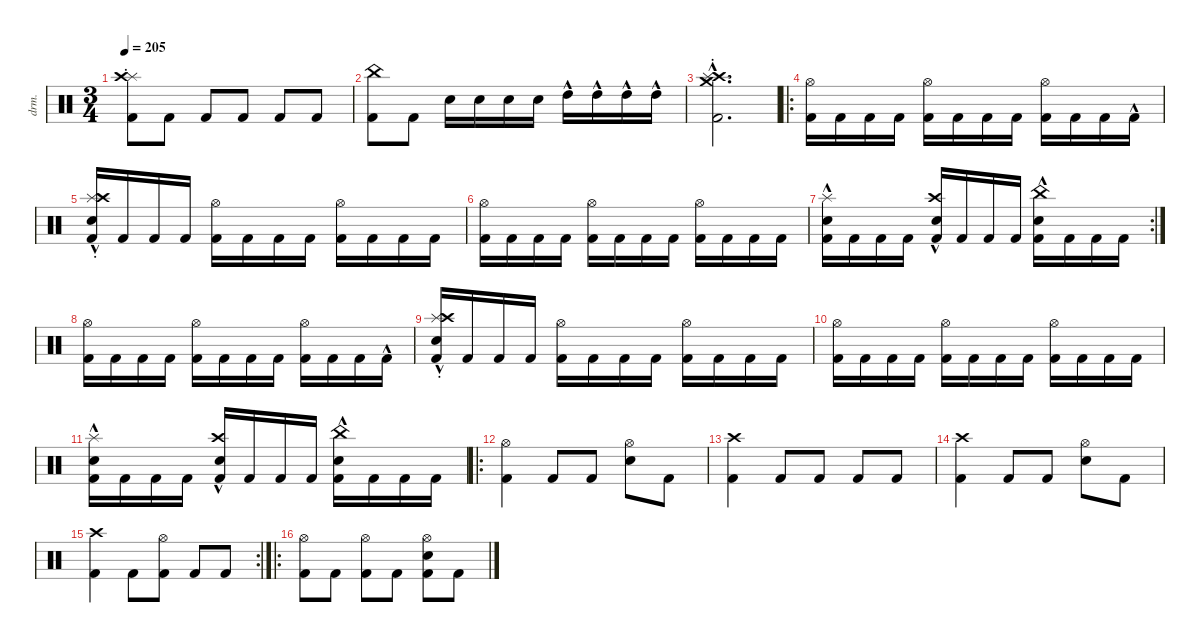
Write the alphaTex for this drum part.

\defaultSystemsLayout 4
\hideDynamics
\bracketExtendMode nobrackets
\otherSystemsTrackNameOrientation horizontal
\track ("Drumkit" "drm.") {instrument percussion}
\staff {score}
\articulation defaults
\ts (3 4)
\tempo 205
\clef neutral
\ks c
("Kick (hit) 2" "Splash (choke)" "Crash high (hit)").8{dy mf} "Kick (hit) 2".8 "Kick (hit) 2".8 "Kick (hit) 2".8 "Kick (hit) 2".8 "Kick (hit) 2".8 |
("China (choke)" "Kick (hit) 2").8 "Kick (hit) 2".8 "Snare (hit) 2".16 "Snare (hit) 2".16 "Snare (hit) 2".16 "Snare (hit) 2".16 "High Tom (hit)"{hac}.16 "High Tom (hit)"{hac}.16 "High Tom (hit)"{hac}.16 "High Tom (hit)"{hac}.16 |
("Crash high (hit)"{hac} "Splash (choke)"{hac} "Crash medium (hit)"{hac} "Kick (hit) 2"{hac}).2{d} |
\ro
("Kick (hit) 2" "Hi-Hat (open)").16 "Kick (hit) 2".16 "Kick (hit) 2".16 "Kick (hit) 2".16 ("Kick (hit) 2" "Hi-Hat (open)").16 "Kick (hit) 2".16 "Kick (hit) 2".16 "Kick (hit) 2".16 ("Kick (hit) 2" "Hi-Hat (open)").16 "Kick (hit) 2".16 "Kick (hit) 2".16 "Kick (hit) 2"{hac}.16 |
("Kick (hit) 2"{hac} "Snare (hit) 2"{hac} "Splash (choke)"{hac} "Crash high (hit)"{hac}).16 "Kick (hit) 2".16 "Kick (hit) 2".16 "Kick (hit) 2".16 ("Kick (hit) 2" "Hi-Hat (open)").16 "Kick (hit) 2".16 "Kick (hit) 2".16 "Kick (hit) 2".16 ("Kick (hit) 2" "Hi-Hat (open)").16 "Kick (hit) 2".16 "Kick (hit) 2".16 "Kick (hit) 2".16 |
("Kick (hit) 2" "Hi-Hat (open)").16 "Kick (hit) 2".16 "Kick (hit) 2".16 "Kick (hit) 2".16 ("Kick (hit) 2" "Hi-Hat (open)").16 "Kick (hit) 2".16 "Kick (hit) 2".16 "Kick (hit) 2".16 ("Kick (hit) 2" "Hi-Hat (open)").16 "Kick (hit) 2".16 "Kick (hit) 2".16 "Kick (hit) 2".16 |
\rc 2
("Kick (hit) 2" "Snare (hit) 2" "Splash (hit)"{hac}).16 "Kick (hit) 2".16 "Kick (hit) 2".16 "Kick (hit) 2".16 ("Kick (hit) 2" "Snare (hit) 2" "Crash high (hit)"{hac}).16 "Kick (hit) 2".16 "Kick (hit) 2".16 "Kick (hit) 2".16 ("Kick (hit) 2" "Snare (hit) 2" "China (hit)"{hac}).16 "Kick (hit) 2".16 "Kick (hit) 2".16 "Kick (hit) 2".16 |
("Kick (hit) 2" "Hi-Hat (open)").16 "Kick (hit) 2".16 "Kick (hit) 2".16 "Kick (hit) 2".16 ("Kick (hit) 2" "Hi-Hat (open)").16 "Kick (hit) 2".16 "Kick (hit) 2".16 "Kick (hit) 2".16 ("Kick (hit) 2" "Hi-Hat (open)").16 "Kick (hit) 2".16 "Kick (hit) 2".16 "Kick (hit) 2"{hac}.16 |
("Kick (hit) 2"{hac} "Snare (hit) 2"{hac} "Splash (choke)"{hac} "Crash high (hit)"{hac}).16 "Kick (hit) 2".16 "Kick (hit) 2".16 "Kick (hit) 2".16 ("Kick (hit) 2" "Hi-Hat (open)").16 "Kick (hit) 2".16 "Kick (hit) 2".16 "Kick (hit) 2".16 ("Kick (hit) 2" "Hi-Hat (open)").16 "Kick (hit) 2".16 "Kick (hit) 2".16 "Kick (hit) 2".16 |
("Kick (hit) 2" "Hi-Hat (open)").16 "Kick (hit) 2".16 "Kick (hit) 2".16 "Kick (hit) 2".16 ("Kick (hit) 2" "Hi-Hat (open)").16 "Kick (hit) 2".16 "Kick (hit) 2".16 "Kick (hit) 2".16 ("Kick (hit) 2" "Hi-Hat (open)").16 "Kick (hit) 2".16 "Kick (hit) 2".16 "Kick (hit) 2".16 |
("Kick (hit) 2" "Snare (hit) 2" "Splash (hit)"{hac}).16 "Kick (hit) 2".16 "Kick (hit) 2".16 "Kick (hit) 2".16 ("Kick (hit) 2" "Snare (hit) 2" "Crash high (hit)"{hac}).16 "Kick (hit) 2".16 "Kick (hit) 2".16 "Kick (hit) 2".16 ("Kick (hit) 2" "Snare (hit) 2" "China (hit)"{hac}).16 "Kick (hit) 2".16 "Kick (hit) 2".16 "Kick (hit) 2".16 |
\ro
("Kick (hit) 2" "Hi-Hat (open)").4 "Kick (hit) 2".8 "Kick (hit) 2".8 ("Snare (hit) 2" "Hi-Hat (open)").8 "Kick (hit) 2".8 |
("Kick (hit) 2" "Crash high (hit)").4 "Kick (hit) 2".8 "Kick (hit) 2".8 "Kick (hit) 2".8 "Kick (hit) 2".8 |
("Kick (hit) 2" "Crash high (hit)").4 "Kick (hit) 2".8 "Kick (hit) 2".8 ("Snare (hit) 2" "Hi-Hat (open)").8 "Kick (hit) 2".8 |
\rc 2
("Kick (hit) 2" "Crash high (hit)").4 "Kick (hit) 2".8 ("Kick (hit) 2" "Hi-Hat (open)").8 "Kick (hit) 2".8 "Kick (hit) 2".8 |
\ro
("Kick (hit) 2" "Hi-Hat (open)").8 "Kick (hit) 2".8 ("Kick (hit) 2" "Hi-Hat (open)").8 "Kick (hit) 2".8 ("Kick (hit) 2" "Hi-Hat (open)" "Snare (hit) 2").8 "Kick (hit) 2".8
